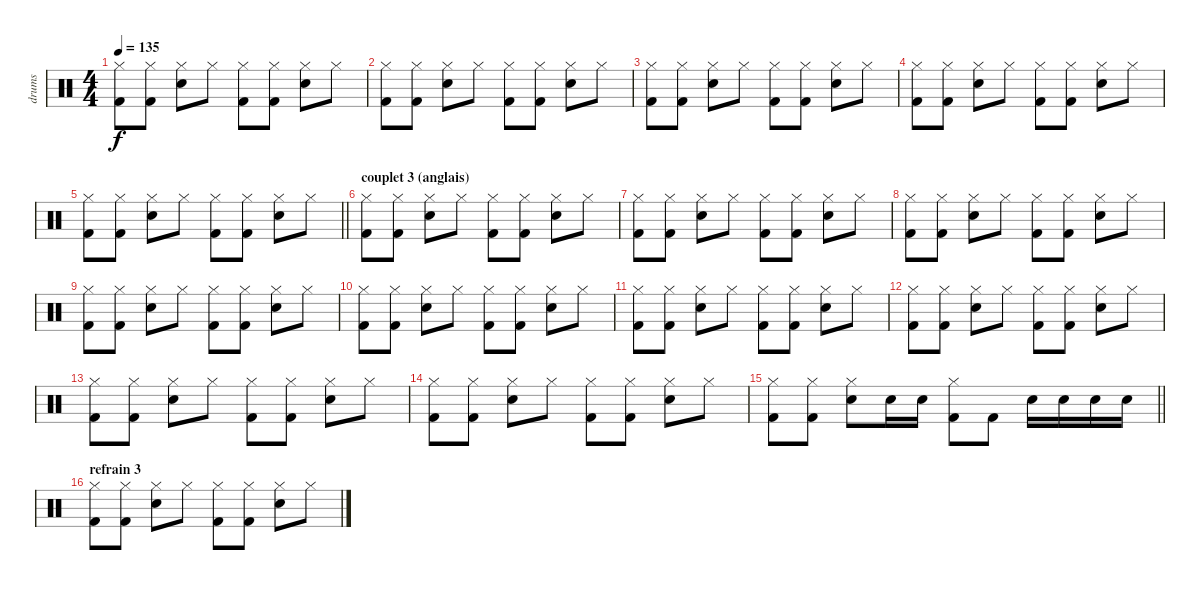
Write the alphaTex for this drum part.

\track ("drums" "drums") {instrument percussion}
\staff {score}
\articulation defaults
\ts (4 4)
\tempo 135
\clef neutral
\ks c
("Hi-Hat (closed)" "Kick (hit) 2").8{dy f} ("Hi-Hat (closed)" "Kick (hit) 2").8 ("Hi-Hat (closed)" "Electric Snare (hit)").8 "Hi-Hat (closed)".8 ("Hi-Hat (closed)" "Kick (hit) 2").8 ("Hi-Hat (closed)" "Kick (hit) 2").8 ("Hi-Hat (closed)" "Electric Snare (hit)").8 "Hi-Hat (closed)".8 |
("Hi-Hat (closed)" "Kick (hit) 2").8 ("Hi-Hat (closed)" "Kick (hit) 2").8 ("Hi-Hat (closed)" "Electric Snare (hit)").8 "Hi-Hat (closed)".8 ("Hi-Hat (closed)" "Kick (hit) 2").8 ("Hi-Hat (closed)" "Kick (hit) 2").8 ("Hi-Hat (closed)" "Electric Snare (hit)").8 "Hi-Hat (closed)".8 |
("Hi-Hat (closed)" "Kick (hit) 2").8 ("Hi-Hat (closed)" "Kick (hit) 2").8 ("Hi-Hat (closed)" "Electric Snare (hit)").8 "Hi-Hat (closed)".8 ("Hi-Hat (closed)" "Kick (hit) 2").8 ("Hi-Hat (closed)" "Kick (hit) 2").8 ("Hi-Hat (closed)" "Electric Snare (hit)").8 "Hi-Hat (closed)".8 |
("Hi-Hat (closed)" "Kick (hit) 2").8 ("Hi-Hat (closed)" "Kick (hit) 2").8 ("Hi-Hat (closed)" "Electric Snare (hit)").8 "Hi-Hat (closed)".8 ("Hi-Hat (closed)" "Kick (hit) 2").8 ("Hi-Hat (closed)" "Kick (hit) 2").8 ("Hi-Hat (closed)" "Electric Snare (hit)").8 "Hi-Hat (closed)".8 |
\barLineRight lightlight
("Hi-Hat (closed)" "Kick (hit) 2").8 ("Hi-Hat (closed)" "Kick (hit) 2").8 ("Hi-Hat (closed)" "Electric Snare (hit)").8 "Hi-Hat (closed)".8 ("Hi-Hat (closed)" "Kick (hit) 2").8 ("Hi-Hat (closed)" "Kick (hit) 2").8 ("Hi-Hat (closed)" "Electric Snare (hit)").8 "Hi-Hat (closed)".8 |
\section ("" "couplet 3 (anglais)")
("Hi-Hat (closed)" "Kick (hit) 2").8 ("Hi-Hat (closed)" "Kick (hit) 2").8 ("Hi-Hat (closed)" "Electric Snare (hit)").8 "Hi-Hat (closed)".8 ("Hi-Hat (closed)" "Kick (hit) 2").8 ("Hi-Hat (closed)" "Kick (hit) 2").8 ("Hi-Hat (closed)" "Electric Snare (hit)").8 "Hi-Hat (closed)".8 |
("Hi-Hat (closed)" "Kick (hit) 2").8 ("Hi-Hat (closed)" "Kick (hit) 2").8 ("Hi-Hat (closed)" "Electric Snare (hit)").8 "Hi-Hat (closed)".8 ("Hi-Hat (closed)" "Kick (hit) 2").8 ("Hi-Hat (closed)" "Kick (hit) 2").8 ("Hi-Hat (closed)" "Electric Snare (hit)").8 "Hi-Hat (closed)".8 |
("Hi-Hat (closed)" "Kick (hit) 2").8 ("Hi-Hat (closed)" "Kick (hit) 2").8 ("Hi-Hat (closed)" "Electric Snare (hit)").8 "Hi-Hat (closed)".8 ("Hi-Hat (closed)" "Kick (hit) 2").8 ("Hi-Hat (closed)" "Kick (hit) 2").8 ("Hi-Hat (closed)" "Electric Snare (hit)").8 "Hi-Hat (closed)".8 |
("Hi-Hat (closed)" "Kick (hit) 2").8 ("Hi-Hat (closed)" "Kick (hit) 2").8 ("Hi-Hat (closed)" "Electric Snare (hit)").8 "Hi-Hat (closed)".8 ("Hi-Hat (closed)" "Kick (hit) 2").8 ("Hi-Hat (closed)" "Kick (hit) 2").8 ("Hi-Hat (closed)" "Electric Snare (hit)").8 "Hi-Hat (closed)".8 |
("Hi-Hat (closed)" "Kick (hit) 2").8 ("Hi-Hat (closed)" "Kick (hit) 2").8 ("Hi-Hat (closed)" "Electric Snare (hit)").8 "Hi-Hat (closed)".8 ("Hi-Hat (closed)" "Kick (hit) 2").8 ("Hi-Hat (closed)" "Kick (hit) 2").8 ("Hi-Hat (closed)" "Electric Snare (hit)").8 "Hi-Hat (closed)".8 |
("Hi-Hat (closed)" "Kick (hit) 2").8 ("Hi-Hat (closed)" "Kick (hit) 2").8 ("Hi-Hat (closed)" "Electric Snare (hit)").8 "Hi-Hat (closed)".8 ("Hi-Hat (closed)" "Kick (hit) 2").8 ("Hi-Hat (closed)" "Kick (hit) 2").8 ("Hi-Hat (closed)" "Electric Snare (hit)").8 "Hi-Hat (closed)".8 |
("Hi-Hat (closed)" "Kick (hit) 2").8 ("Hi-Hat (closed)" "Kick (hit) 2").8 ("Hi-Hat (closed)" "Electric Snare (hit)").8 "Hi-Hat (closed)".8 ("Hi-Hat (closed)" "Kick (hit) 2").8 ("Hi-Hat (closed)" "Kick (hit) 2").8 ("Hi-Hat (closed)" "Electric Snare (hit)").8 "Hi-Hat (closed)".8 |
("Hi-Hat (closed)" "Kick (hit) 2").8 ("Hi-Hat (closed)" "Kick (hit) 2").8 ("Hi-Hat (closed)" "Electric Snare (hit)").8 "Hi-Hat (closed)".8 ("Hi-Hat (closed)" "Kick (hit) 2").8 ("Hi-Hat (closed)" "Kick (hit) 2").8 ("Hi-Hat (closed)" "Electric Snare (hit)").8 "Hi-Hat (closed)".8 |
("Hi-Hat (closed)" "Kick (hit) 2").8 ("Hi-Hat (closed)" "Kick (hit) 2").8 ("Hi-Hat (closed)" "Electric Snare (hit)").8 "Hi-Hat (closed)".8 ("Hi-Hat (closed)" "Kick (hit) 2").8 ("Hi-Hat (closed)" "Kick (hit) 2").8 ("Hi-Hat (closed)" "Electric Snare (hit)").8 "Hi-Hat (closed)".8 |
\barLineRight lightlight
("Hi-Hat (closed)" "Kick (hit) 2").8 ("Hi-Hat (closed)" "Kick (hit) 2").8 ("Hi-Hat (closed)" "Electric Snare (hit)").8 "Electric Snare (hit)".16 "Electric Snare (hit)".16 ("Hi-Hat (closed)" "Kick (hit) 2").8 "Kick (hit) 2".8 "Electric Snare (hit)".16 "Electric Snare (hit)".16 "Electric Snare (hit)".16 "Electric Snare (hit)".16 |
\section ("" "refrain 3")
("Hi-Hat (closed)" "Kick (hit) 2").8 ("Hi-Hat (closed)" "Kick (hit) 2").8 ("Hi-Hat (closed)" "Electric Snare (hit)").8 "Hi-Hat (closed)".8 ("Hi-Hat (closed)" "Kick (hit) 2").8 ("Hi-Hat (closed)" "Kick (hit) 2").8 ("Hi-Hat (closed)" "Electric Snare (hit)").8 "Hi-Hat (closed)".8
